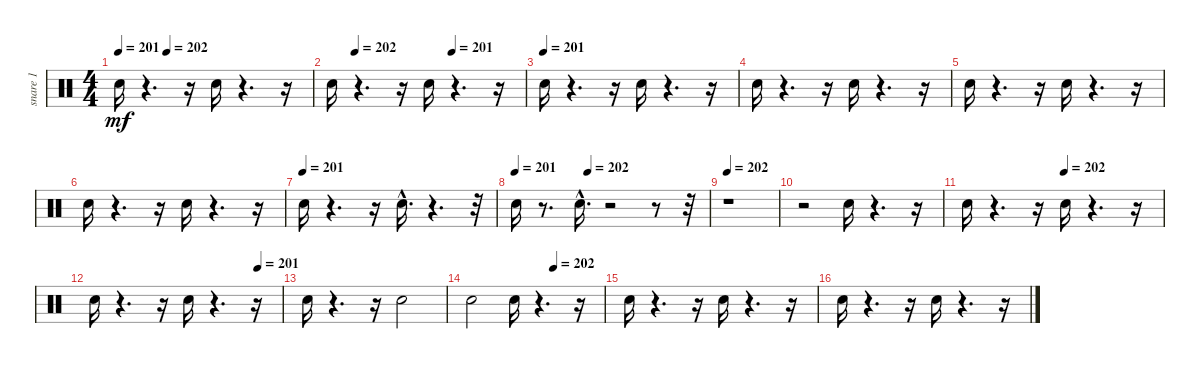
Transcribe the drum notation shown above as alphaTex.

\track ("snare 1" "snare 1") {instrument percussion}
\staff {score}
\articulation defaults
\ts (4 4)
\tempo 201
\tempo (202 0.25)
\clef neutral
\ks c "Snare (hit) 2".16{dy mf}
r.4{d} r.16 "Snare (hit) 2".16 r.4{d} r.16 |
\tempo (202 0.125)
\tempo (201 0.625)
"Snare (hit) 2".16 r.4{d} r.16 "Snare (hit) 2".16 r.4{d} r.16 |
\tempo (201)
"Snare (hit) 2".16 r.4{d} r.16 "Snare (hit) 2".16 r.4{d} r.16 |
"Snare (hit) 2".16 r.4{d} r.16 "Snare (hit) 2".16 r.4{d} r.16 |
"Snare (hit) 2".16 r.4{d} r.16 "Snare (hit) 2".16 r.4{d} r.16 |
"Snare (hit) 2".16 r.4{d} r.16 "Snare (hit) 2".16 r.4{d} r.16 |
\tempo (201)
"Snare (hit) 2".16 r.4{d} r.16 "Snare (hit) 2"{hac}.16{d} r.4{d} r.32 |
\tempo 201
\tempo (202 0.375)
"Snare (hit) 2".16 r.8{d} "Snare (hit) 2"{hac}.16{d} r.2 r.8 r.32 |
\tempo 202
r.1 |
r.2 "Snare (hit) 2".16 r.4{d} r.16 |
\tempo (202 0.5)
"Snare (hit) 2".16 r.4{d} r.16 "Snare (hit) 2".16 r.4{d} r.16 |
\tempo (201 0.875)
"Snare (hit) 2".16 r.4{d} r.16 "Snare (hit) 2".16 r.4{d} r.16 |
"Snare (hit) 2".16 r.4{d} r.16 "Snare (hit) 2".2 |
\tempo (202 0.625)
"Snare (hit) 2".2 "Snare (hit) 2".16 r.4{d} r.16 |
"Snare (hit) 2".16 r.4{d} r.16 "Snare (hit) 2".16 r.4{d} r.16 |
"Snare (hit) 2".16 r.4{d} r.16 "Snare (hit) 2".16 r.4{d} r.16
